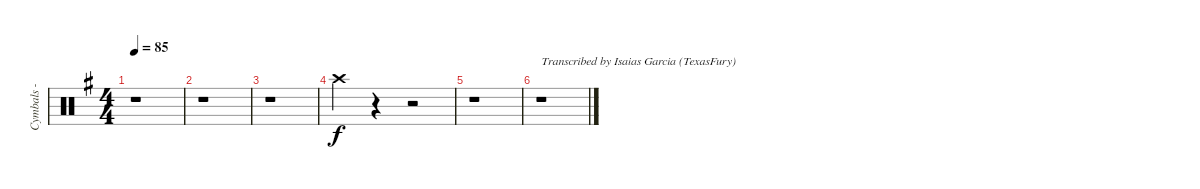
\track ("Cymbals - crash" "Cymbals - ") {instrument percussion}
\staff {score}
\articulation defaults
\ts (4 4)
\tempo 85
\clef neutral
\ks g
r.1{dy f} |
r.1 |
r.1 |
"Crash high (hit)".4 r.4 r.2 |
r.1 |
r.1{txt "Transcribed by Isaias Garcia (TexasFury)"}
